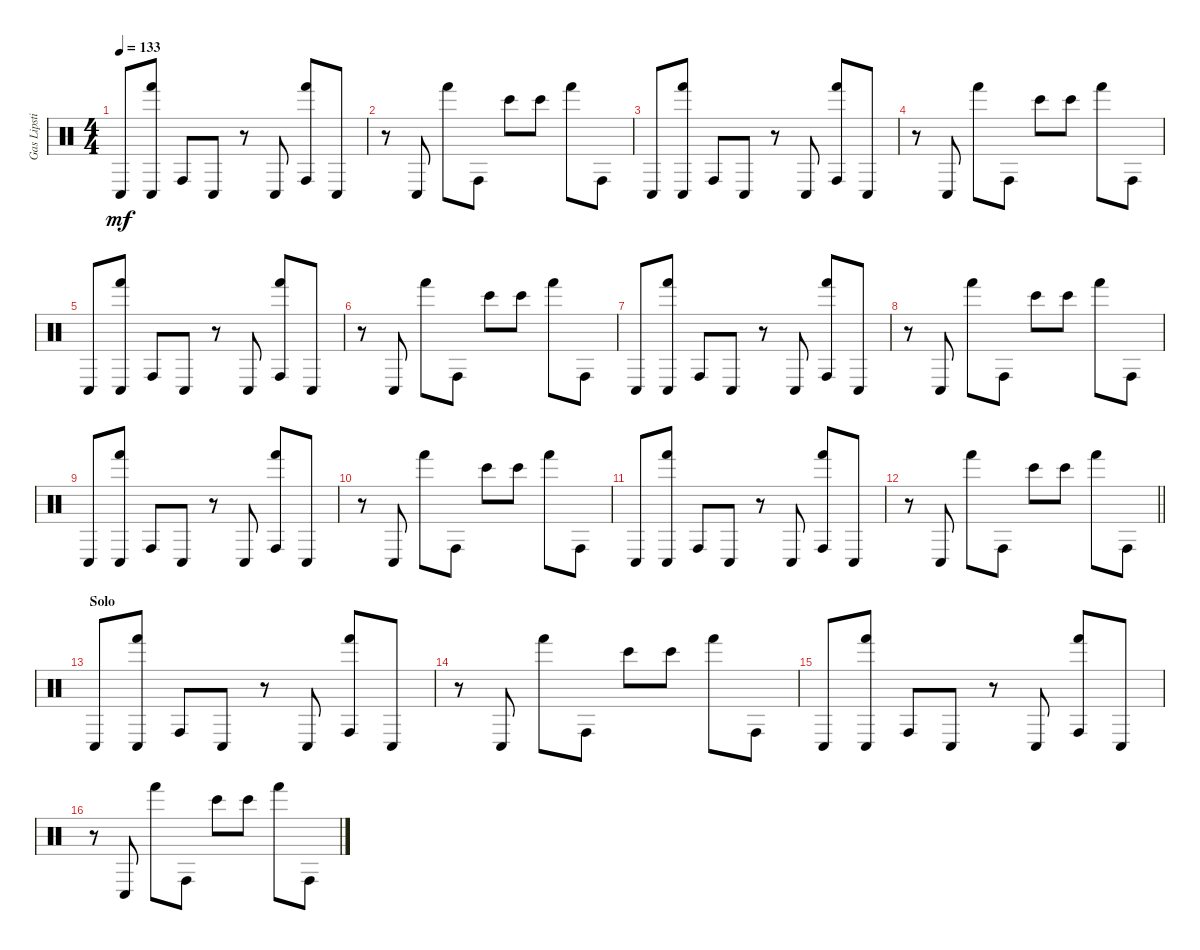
\track ("Gas Lipstick (Drums)" "Gas Lipsti") {instrument percussion}
\staff {score}
\articulation defaults
\ts (4 4)
\tempo 133
\clef neutral
\ks c "Conga low (hit)".8{dy mf}
("Hand (hit)" "Conga low (hit)").8 "Conga high (hit)".8 "Conga low (hit)".8 r.8 "Conga low (hit)".8 ("Hand (hit)" "Conga high (hit)").8 "Conga low (hit)".8 |
r.8 "Conga low (hit)".8 "Hand (hit)".8 "Conga high (hit)".8 "Bongo High (hit)".8 "Bongo High (hit)".8 "Hand (hit)".8 "Conga high (hit)".8 |
"Conga low (hit)".8 ("Hand (hit)" "Conga low (hit)").8 "Conga high (hit)".8 "Conga low (hit)".8 r.8 "Conga low (hit)".8 ("Hand (hit)" "Conga high (hit)").8 "Conga low (hit)".8 |
r.8 "Conga low (hit)".8 "Hand (hit)".8 "Conga high (hit)".8 "Bongo High (hit)".8 "Bongo High (hit)".8 "Hand (hit)".8 "Conga high (hit)".8 |
"Conga low (hit)".8 ("Hand (hit)" "Conga low (hit)").8 "Conga high (hit)".8 "Conga low (hit)".8 r.8 "Conga low (hit)".8 ("Hand (hit)" "Conga high (hit)").8 "Conga low (hit)".8 |
r.8 "Conga low (hit)".8 "Hand (hit)".8 "Conga high (hit)".8 "Bongo High (hit)".8 "Bongo High (hit)".8 "Hand (hit)".8 "Conga high (hit)".8 |
"Conga low (hit)".8 ("Hand (hit)" "Conga low (hit)").8 "Conga high (hit)".8 "Conga low (hit)".8 r.8 "Conga low (hit)".8 ("Hand (hit)" "Conga high (hit)").8 "Conga low (hit)".8 |
r.8 "Conga low (hit)".8 "Hand (hit)".8 "Conga high (hit)".8 "Bongo High (hit)".8 "Bongo High (hit)".8 "Hand (hit)".8 "Conga high (hit)".8 |
"Conga low (hit)".8 ("Hand (hit)" "Conga low (hit)").8 "Conga high (hit)".8 "Conga low (hit)".8 r.8 "Conga low (hit)".8 ("Hand (hit)" "Conga high (hit)").8 "Conga low (hit)".8 |
r.8 "Conga low (hit)".8 "Hand (hit)".8 "Conga high (hit)".8 "Bongo High (hit)".8 "Bongo High (hit)".8 "Hand (hit)".8 "Conga high (hit)".8 |
"Conga low (hit)".8 ("Hand (hit)" "Conga low (hit)").8 "Conga high (hit)".8 "Conga low (hit)".8 r.8 "Conga low (hit)".8 ("Hand (hit)" "Conga high (hit)").8 "Conga low (hit)".8 |
\barLineRight lightlight
r.8 "Conga low (hit)".8 "Hand (hit)".8 "Conga high (hit)".8 "Bongo High (hit)".8 "Bongo High (hit)".8 "Hand (hit)".8 "Conga high (hit)".8 |
\section ("" "Solo")
"Conga low (hit)".8 ("Hand (hit)" "Conga low (hit)").8 "Conga high (hit)".8 "Conga low (hit)".8 r.8 "Conga low (hit)".8 ("Hand (hit)" "Conga high (hit)").8 "Conga low (hit)".8 |
r.8 "Conga low (hit)".8 "Hand (hit)".8 "Conga high (hit)".8 "Bongo High (hit)".8 "Bongo High (hit)".8 "Hand (hit)".8 "Conga high (hit)".8 |
"Conga low (hit)".8 ("Hand (hit)" "Conga low (hit)").8 "Conga high (hit)".8 "Conga low (hit)".8 r.8 "Conga low (hit)".8 ("Hand (hit)" "Conga high (hit)").8 "Conga low (hit)".8 |
r.8 "Conga low (hit)".8 "Hand (hit)".8 "Conga high (hit)".8 "Bongo High (hit)".8 "Bongo High (hit)".8 "Hand (hit)".8 "Conga high (hit)".8
